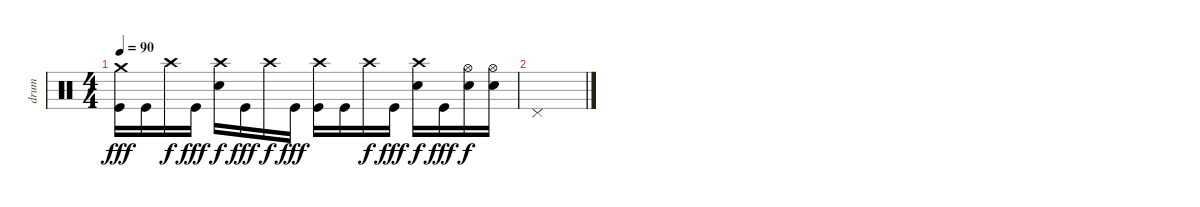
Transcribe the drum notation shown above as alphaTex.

\track ("drum" "drum") {instrument percussion}
\staff {score}
\articulation defaults
\ts (4 4)
\tempo 90
\clef neutral
\ks c
("Crash medium (hit)" "Kick (hit)").16{dy fff} "Kick (hit)".16 "Crash high (hit)".16{dy f} "Kick (hit)".16{dy fff} ("Crash high (hit)" "Electric Snare (hit)").16{dy f} "Kick (hit)".16{dy fff} "Crash high (hit)".16{dy f} "Kick (hit)".16{dy fff} ("Crash high (hit)" "Kick (hit)").16 "Kick (hit)".16 "Crash high (hit)".16{dy f} "Kick (hit)".16{dy fff} ("Crash high (hit)" "Electric Snare (hit)").16{dy f} "Kick (hit)".16{dy fff} ("Hi-Hat (open)" "Electric Snare (hit)").16{dy f} ("Hi-Hat (open)" "Electric Snare (hit)").16 |
"Pedal Hi-Hat (hit)".1
